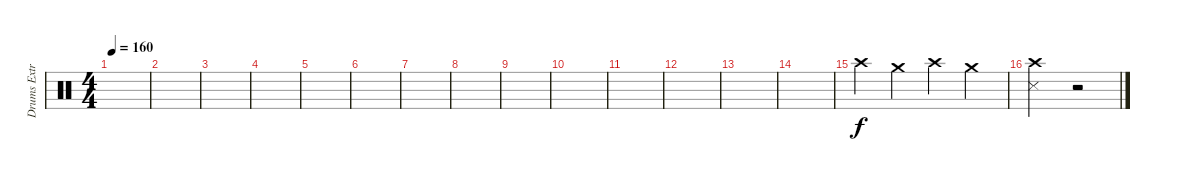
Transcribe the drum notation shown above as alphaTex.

\track ("Drums Extra" "Drums Extr") {instrument percussion}
\staff {score}
\articulation defaults
\ts (4 4)
\tempo 160
\clef neutral
\ks c
|
|
|
|
|
|
|
|
|
|
|
|
|
|
"Crash high (hit)".4 "Crash medium (hit)".4 "Crash high (hit)".4 "Crash medium (hit)".4 |
("Crash high (hit)" "Metronome (hit)").2 r.2
